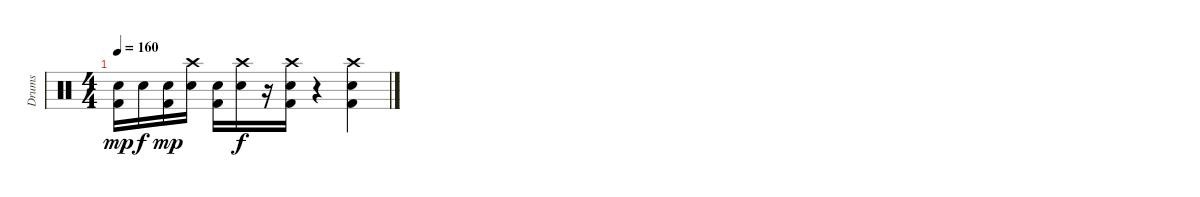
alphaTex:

\track ("Drums" "Drums") {instrument percussion}
\staff {score}
\articulation defaults
\ts (4 4)
\tempo 160
\clef neutral
\ks c
("Snare (hit) 2" "Kick (hit) 2").16{dy mp} "Snare (hit) 2".16{dy f} ("Snare (hit) 2" "Kick (hit) 2").16{dy mp} ("Crash high (hit)" "Snare (hit) 2").16 ("Snare (hit) 2" "Kick (hit) 2").16 ("Crash high (hit)" "Snare (hit) 2").16{dy f} r.16 ("Crash high (hit)" "Snare (hit) 2" "Kick (hit) 2").16 r.4 ("Crash high (hit)" "Snare (hit) 2" "Kick (hit) 2").4
